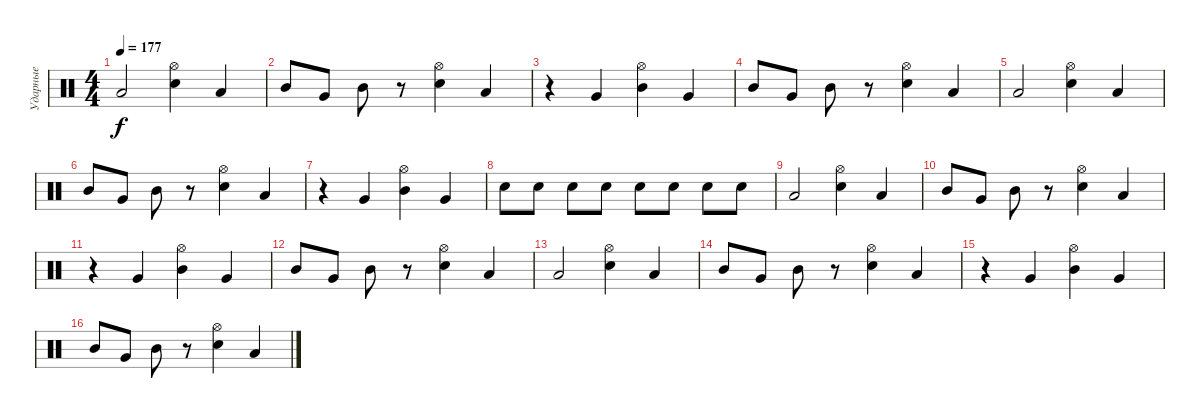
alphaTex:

\track ("Ударные" "Ударные") {instrument percussion}
\staff {score}
\articulation defaults
\ts (4 4)
\tempo 177
\clef neutral
\ks c "Low Tom (hit)".2{dy f}
("Hi-Hat (open)" "Electric Snare (hit)").4 "Low Tom (hit)".4 |
"Mid Tom (hit)".8 "Very Low Tom (hit)".8 "Mid Tom (hit)".8 r.8 ("Hi-Hat (open)" "Electric Snare (hit)").4 "Low Tom (hit)".4 |
r.4 "Very Low Tom (hit)".4 ("Hi-Hat (open)" "Mid Tom (hit)").4 "Very Low Tom (hit)".4 |
"Mid Tom (hit)".8 "Very Low Tom (hit)".8 "Mid Tom (hit)".8 r.8 ("Hi-Hat (open)" "Electric Snare (hit)").4 "Low Tom (hit)".4 |
"Low Tom (hit)".2 ("Hi-Hat (open)" "Electric Snare (hit)").4 "Low Tom (hit)".4 |
"Mid Tom (hit)".8 "Very Low Tom (hit)".8 "Mid Tom (hit)".8 r.8 ("Hi-Hat (open)" "Electric Snare (hit)").4 "Low Tom (hit)".4 |
r.4 "Very Low Tom (hit)".4 ("Hi-Hat (open)" "Mid Tom (hit)").4 "Very Low Tom (hit)".4 |
"Electric Snare (hit)".8 "Electric Snare (hit)".8 "Electric Snare (hit)".8 "Electric Snare (hit)".8 "Electric Snare (hit)".8 "Electric Snare (hit)".8 "Electric Snare (hit)".8 "Electric Snare (hit)".8 |
"Low Tom (hit)".2 ("Hi-Hat (open)" "Electric Snare (hit)").4 "Low Tom (hit)".4 |
"Mid Tom (hit)".8 "Very Low Tom (hit)".8 "Mid Tom (hit)".8 r.8 ("Hi-Hat (open)" "Electric Snare (hit)").4 "Low Tom (hit)".4 |
r.4 "Very Low Tom (hit)".4 ("Hi-Hat (open)" "Mid Tom (hit)").4 "Very Low Tom (hit)".4 |
"Mid Tom (hit)".8 "Very Low Tom (hit)".8 "Mid Tom (hit)".8 r.8 ("Hi-Hat (open)" "Electric Snare (hit)").4 "Low Tom (hit)".4 |
"Low Tom (hit)".2 ("Hi-Hat (open)" "Electric Snare (hit)").4 "Low Tom (hit)".4 |
"Mid Tom (hit)".8 "Very Low Tom (hit)".8 "Mid Tom (hit)".8 r.8 ("Hi-Hat (open)" "Electric Snare (hit)").4 "Low Tom (hit)".4 |
r.4 "Very Low Tom (hit)".4 ("Hi-Hat (open)" "Mid Tom (hit)").4 "Very Low Tom (hit)".4 |
"Mid Tom (hit)".8 "Very Low Tom (hit)".8 "Mid Tom (hit)".8 r.8 ("Hi-Hat (open)" "Electric Snare (hit)").4 "Low Tom (hit)".4
